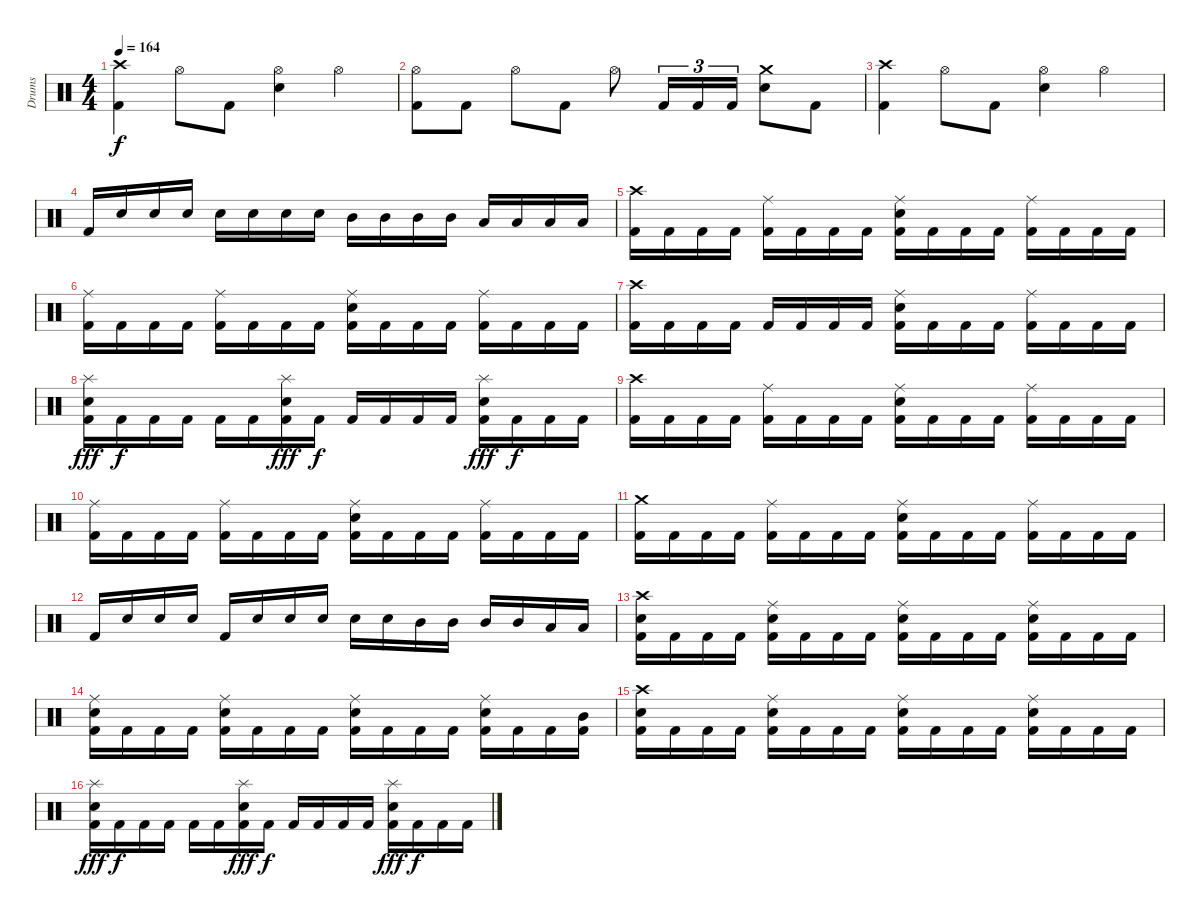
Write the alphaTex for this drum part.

\track ("Drums" "Drums") {instrument percussion}
\staff {score}
\articulation defaults
\ts (4 4)
\tempo 164
\clef neutral
\ks c
("Crash high (hit)" "Kick (hit) 2").4{dy f} "Hi-Hat (open)".8 "Kick (hit) 2".8 ("Hi-Hat (open)" "Electric Snare (hit)").4 "Hi-Hat (open)".4 |
("Hi-Hat (open)" "Kick (hit) 2").8 "Kick (hit) 2".8 "Hi-Hat (open)".8 "Kick (hit) 2".8 "Hi-Hat (open)".8 "Kick (hit) 2".16{tu (3 2)} "Kick (hit) 2".16{tu (3 2)} "Kick (hit) 2".16{tu (3 2)} ("Crash medium (hit)" "Electric Snare (hit)").8 "Kick (hit) 2".8 |
("Crash high (hit)" "Kick (hit) 2").4 "Hi-Hat (open)".8 "Kick (hit) 2".8 ("Hi-Hat (open)" "Electric Snare (hit)").4 "Hi-Hat (open)".4 |
"Kick (hit) 2".16 "Electric Snare (hit)".16 "Electric Snare (hit)".16 "Electric Snare (hit)".16 "Electric Snare (hit)".16 "Electric Snare (hit)".16 "Electric Snare (hit)".16 "Electric Snare (hit)".16 "Mid Tom (hit)".16 "Mid Tom (hit)".16 "Mid Tom (hit)".16 "Mid Tom (hit)".16 "Low Tom (hit)".16 "Low Tom (hit)".16 "Low Tom (hit)".16 "Low Tom (hit)".16 |
("Crash high (hit)" "Kick (hit) 2").16 "Kick (hit) 2".16 "Kick (hit) 2".16 "Kick (hit) 2".16 ("Ride (middle)" "Kick (hit) 2").16 "Kick (hit) 2".16 "Kick (hit) 2".16 "Kick (hit) 2".16 ("Ride (middle)" "Electric Snare (hit)" "Kick (hit) 2").16 "Kick (hit) 2".16 "Kick (hit) 2".16 "Kick (hit) 2".16 ("Ride (middle)" "Kick (hit) 2").16 "Kick (hit) 2".16 "Kick (hit) 2".16 "Kick (hit) 2".16 |
("Ride (middle)" "Kick (hit) 2").16 "Kick (hit) 2".16 "Kick (hit) 2".16 "Kick (hit) 2".16 ("Ride (middle)" "Kick (hit) 2").16 "Kick (hit) 2".16 "Kick (hit) 2".16 "Kick (hit) 2".16 ("Ride (middle)" "Electric Snare (hit)" "Kick (hit) 2").16 "Kick (hit) 2".16 "Kick (hit) 2".16 "Kick (hit) 2".16 ("Ride (middle)" "Kick (hit) 2").16 "Kick (hit) 2".16 "Kick (hit) 2".16 "Kick (hit) 2".16 |
("Crash high (hit)" "Kick (hit) 2").16 "Kick (hit) 2".16 "Kick (hit) 2".16 "Kick (hit) 2".16 "Kick (hit) 2".16 "Kick (hit) 2".16 "Kick (hit) 2".16 "Kick (hit) 2".16 ("Ride (middle)" "Electric Snare (hit)" "Kick (hit) 2").16 "Kick (hit) 2".16 "Kick (hit) 2".16 "Kick (hit) 2".16 ("Ride (middle)" "Kick (hit) 2").16 "Kick (hit) 2".16 "Kick (hit) 2".16 "Kick (hit) 2".16 |
("Splash (hit)" "Electric Snare (hit)" "Kick (hit) 2").16{dy fff} "Kick (hit) 2".16{dy f} "Kick (hit) 2".16 "Kick (hit) 2".16 "Kick (hit) 2".16 "Kick (hit) 2".16 ("Splash (hit)" "Electric Snare (hit)" "Kick (hit) 2").16{dy fff} "Kick (hit) 2".16{dy f} "Kick (hit) 2".16 "Kick (hit) 2".16 "Kick (hit) 2".16 "Kick (hit) 2".16 ("Splash (hit)" "Electric Snare (hit)" "Kick (hit) 2").16{dy fff} "Kick (hit) 2".16{dy f} "Kick (hit) 2".16 "Kick (hit) 2".16 |
("Crash high (hit)" "Kick (hit) 2").16 "Kick (hit) 2".16 "Kick (hit) 2".16 "Kick (hit) 2".16 ("Ride (middle)" "Kick (hit) 2").16 "Kick (hit) 2".16 "Kick (hit) 2".16 "Kick (hit) 2".16 ("Ride (middle)" "Electric Snare (hit)" "Kick (hit) 2").16 "Kick (hit) 2".16 "Kick (hit) 2".16 "Kick (hit) 2".16 ("Ride (middle)" "Kick (hit) 2").16 "Kick (hit) 2".16 "Kick (hit) 2".16 "Kick (hit) 2".16 |
("Ride (middle)" "Kick (hit) 2").16 "Kick (hit) 2".16 "Kick (hit) 2".16 "Kick (hit) 2".16 ("Ride (middle)" "Kick (hit) 2").16 "Kick (hit) 2".16 "Kick (hit) 2".16 "Kick (hit) 2".16 ("Ride (middle)" "Electric Snare (hit)" "Kick (hit) 2").16 "Kick (hit) 2".16 "Kick (hit) 2".16 "Kick (hit) 2".16 ("Ride (middle)" "Kick (hit) 2").16 "Kick (hit) 2".16 "Kick (hit) 2".16 "Kick (hit) 2".16 |
("Crash medium (hit)" "Kick (hit) 2").16 "Kick (hit) 2".16 "Kick (hit) 2".16 "Kick (hit) 2".16 ("Ride (middle)" "Kick (hit) 2").16 "Kick (hit) 2".16 "Kick (hit) 2".16 "Kick (hit) 2".16 ("Ride (middle)" "Electric Snare (hit)" "Kick (hit) 2").16 "Kick (hit) 2".16 "Kick (hit) 2".16 "Kick (hit) 2".16 ("Ride (middle)" "Kick (hit) 2").16 "Kick (hit) 2".16 "Kick (hit) 2".16 "Kick (hit) 2".16 |
"Kick (hit) 2".16 "Electric Snare (hit)".16 "Electric Snare (hit)".16 "Electric Snare (hit)".16 "Kick (hit) 2".16 "Electric Snare (hit)".16 "Electric Snare (hit)".16 "Electric Snare (hit)".16 "Electric Snare (hit)".16 "Electric Snare (hit)".16 "Mid Tom (hit)".16 "Mid Tom (hit)".16 "Mid Tom (hit)".16 "Mid Tom (hit)".16 "Low Tom (hit)".16 "Low Tom (hit)".16 |
("Crash high (hit)" "Electric Snare (hit)" "Kick (hit) 2").16 "Kick (hit) 2".16 "Kick (hit) 2".16 "Kick (hit) 2".16 ("Ride (middle)" "Electric Snare (hit)" "Kick (hit) 2").16 "Kick (hit) 2".16 "Kick (hit) 2".16 "Kick (hit) 2".16 ("Ride (middle)" "Electric Snare (hit)" "Kick (hit) 2").16 "Kick (hit) 2".16 "Kick (hit) 2".16 "Kick (hit) 2".16 ("Ride (middle)" "Electric Snare (hit)" "Kick (hit) 2").16 "Kick (hit) 2".16 "Kick (hit) 2".16 "Kick (hit) 2".16 |
("Ride (middle)" "Electric Snare (hit)" "Kick (hit) 2").16 "Kick (hit) 2".16 "Kick (hit) 2".16 "Kick (hit) 2".16 ("Ride (middle)" "Electric Snare (hit)" "Kick (hit) 2").16 "Kick (hit) 2".16 "Kick (hit) 2".16 "Kick (hit) 2".16 ("Ride (middle)" "Electric Snare (hit)" "Kick (hit) 2").16 "Kick (hit) 2".16 "Kick (hit) 2".16 "Kick (hit) 2".16 ("Ride (middle)" "Electric Snare (hit)" "Kick (hit) 2").16 "Kick (hit) 2".16 "Kick (hit) 2".16 ("Mid Tom (hit)" "Kick (hit) 2").16 |
("Crash high (hit)" "Electric Snare (hit)" "Kick (hit) 2").16 "Kick (hit) 2".16 "Kick (hit) 2".16 "Kick (hit) 2".16 ("Ride (middle)" "Electric Snare (hit)" "Kick (hit) 2").16 "Kick (hit) 2".16 "Kick (hit) 2".16 "Kick (hit) 2".16 ("Ride (middle)" "Electric Snare (hit)" "Kick (hit) 2").16 "Kick (hit) 2".16 "Kick (hit) 2".16 "Kick (hit) 2".16 ("Ride (middle)" "Electric Snare (hit)" "Kick (hit) 2").16 "Kick (hit) 2".16 "Kick (hit) 2".16 "Kick (hit) 2".16 |
("Splash (hit)" "Electric Snare (hit)" "Kick (hit) 2").16{dy fff} "Kick (hit) 2".16{dy f} "Kick (hit) 2".16 "Kick (hit) 2".16 "Kick (hit) 2".16 "Kick (hit) 2".16 ("Splash (hit)" "Electric Snare (hit)" "Kick (hit) 2").16{dy fff} "Kick (hit) 2".16{dy f} "Kick (hit) 2".16 "Kick (hit) 2".16 "Kick (hit) 2".16 "Kick (hit) 2".16 ("Splash (hit)" "Electric Snare (hit)" "Kick (hit) 2").16{dy fff} "Kick (hit) 2".16{dy f} "Kick (hit) 2".16 "Kick (hit) 2".16
